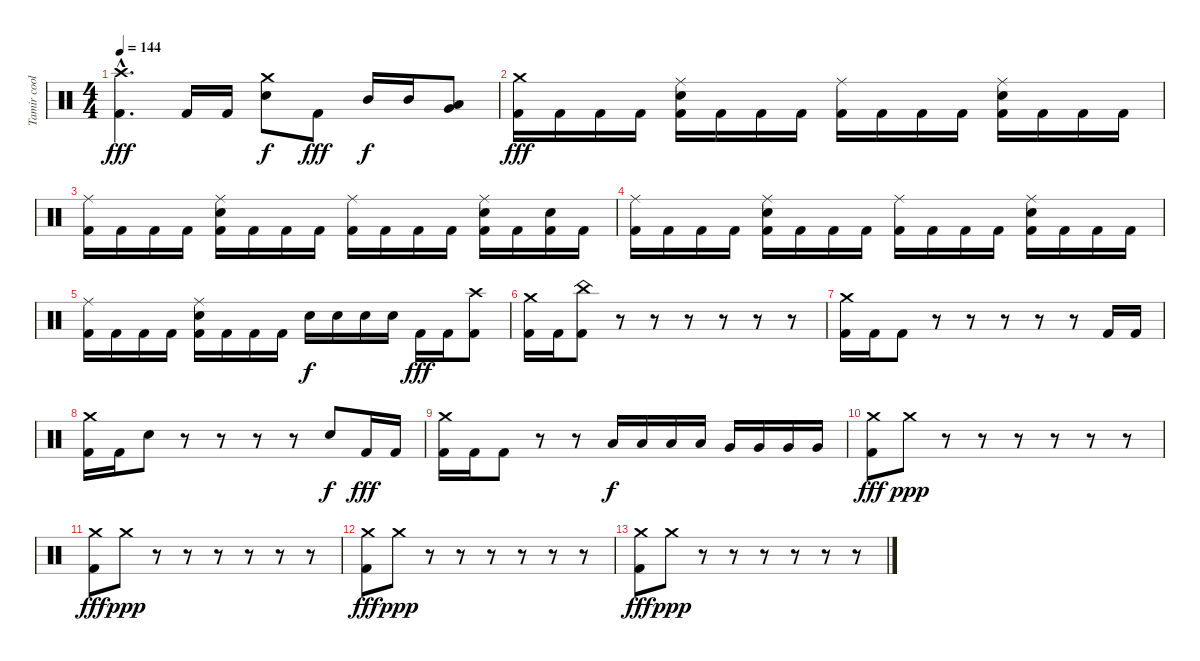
\track ("Tamir coolberg" "Tamir cool") {instrument percussion}
\staff {score}
\articulation defaults
\ts (4 4)
\tempo 144
\clef neutral
\ks c
("Crash high (hit)"{hac} "Kick (hit) 2"{hac}).4{d dy fff} "Kick (hit) 2".16 "Kick (hit) 2".16 ("Crash medium (hit)" "Electric Snare (hit)").8{dy f} "Kick (hit) 2".8{dy fff} "Mid Tom (hit)".16{dy f} "Mid Tom (hit)".16 ("Low Tom (hit)" "Very Low Tom (hit)").8 |
("Crash medium (hit)" "Kick (hit) 2").16{dy fff} "Kick (hit) 2".16 "Kick (hit) 2".16 "Kick (hit) 2".16 ("Ride (middle)" "Electric Snare (hit)" "Kick (hit) 2").16 "Kick (hit) 2".16 "Kick (hit) 2".16 "Kick (hit) 2".16 ("Ride (middle)" "Kick (hit) 2").16 "Kick (hit) 2".16 "Kick (hit) 2".16 "Kick (hit) 2".16 ("Ride (middle)" "Electric Snare (hit)" "Kick (hit) 2").16 "Kick (hit) 2".16 "Kick (hit) 2".16 "Kick (hit) 2".16 |
("Ride (middle)" "Kick (hit) 2").16 "Kick (hit) 2".16 "Kick (hit) 2".16 "Kick (hit) 2".16 ("Ride (middle)" "Electric Snare (hit)" "Kick (hit) 2").16 "Kick (hit) 2".16 "Kick (hit) 2".16 "Kick (hit) 2".16 ("Ride (middle)" "Kick (hit) 2").16 "Kick (hit) 2".16 "Kick (hit) 2".16 "Kick (hit) 2".16 ("Ride (middle)" "Electric Snare (hit)" "Kick (hit) 2").16 "Kick (hit) 2".16 ("Electric Snare (hit)" "Kick (hit) 2").16 "Kick (hit) 2".16 |
("Ride (middle)" "Kick (hit) 2").16 "Kick (hit) 2".16 "Kick (hit) 2".16 "Kick (hit) 2".16 ("Ride (middle)" "Electric Snare (hit)" "Kick (hit) 2").16 "Kick (hit) 2".16 "Kick (hit) 2".16 "Kick (hit) 2".16 ("Ride (middle)" "Kick (hit) 2").16 "Kick (hit) 2".16 "Kick (hit) 2".16 "Kick (hit) 2".16 ("Ride (middle)" "Electric Snare (hit)" "Kick (hit) 2").16 "Kick (hit) 2".16 "Kick (hit) 2".16 "Kick (hit) 2".16 |
("Ride (middle)" "Kick (hit) 2").16 "Kick (hit) 2".16 "Kick (hit) 2".16 "Kick (hit) 2".16 ("Ride (middle)" "Electric Snare (hit)" "Kick (hit) 2").16 "Kick (hit) 2".16 "Kick (hit) 2".16 "Kick (hit) 2".16 "Electric Snare (hit)".16{dy f} "Electric Snare (hit)".16 "Electric Snare (hit)".16 "Electric Snare (hit)".16 "Kick (hit) 2".16{dy fff} "Kick (hit) 2".16 ("Crash high (hit)" "Kick (hit) 2").8 |
("Crash medium (hit)" "Kick (hit) 2").16 "Kick (hit) 2".16 ("China (hit)" "Kick (hit) 2").8 r.8 r.8 r.8 r.8 r.8 r.8 |
("Crash medium (hit)" "Kick (hit) 2").16 "Kick (hit) 2".16 "Kick (hit) 2".8 r.8 r.8 r.8 r.8 r.8 "Kick (hit) 2".16 "Kick (hit) 2".16 |
("Crash medium (hit)" "Kick (hit) 2").16 "Kick (hit) 2".16 "Electric Snare (hit)".8 r.8 r.8 r.8 r.8 "Electric Snare (hit)".8{dy f} "Kick (hit) 2".16{dy fff} "Kick (hit) 2".16 |
("Crash medium (hit)" "Kick (hit) 2").16 "Kick (hit) 2".16 "Kick (hit) 2".8 r.8 r.8 "Low Tom (hit)".16{dy f} "Low Tom (hit)".16 "Low Tom (hit)".16 "Low Tom (hit)".16 "Very Low Tom (hit)".16 "Very Low Tom (hit)".16 "Very Low Tom (hit)".16 "Very Low Tom (hit)".16 |
("Crash medium (hit)" "Kick (hit) 2").8{dy fff volume 0} "Crash medium (hit)".8{dy ppp} r.8 r.8 r.8 r.8 r.8 r.8 |
("Crash medium (hit)" "Kick (hit) 2").8{dy fff} "Crash medium (hit)".8{dy ppp} r.8 r.8 r.8 r.8 r.8 r.8 |
("Crash medium (hit)" "Kick (hit) 2").8{dy fff} "Crash medium (hit)".8{dy ppp} r.8 r.8 r.8 r.8 r.8 r.8 |
("Crash medium (hit)" "Kick (hit) 2").8{dy fff} "Crash medium (hit)".8{dy ppp} r.8 r.8 r.8 r.8 r.8 r.8
